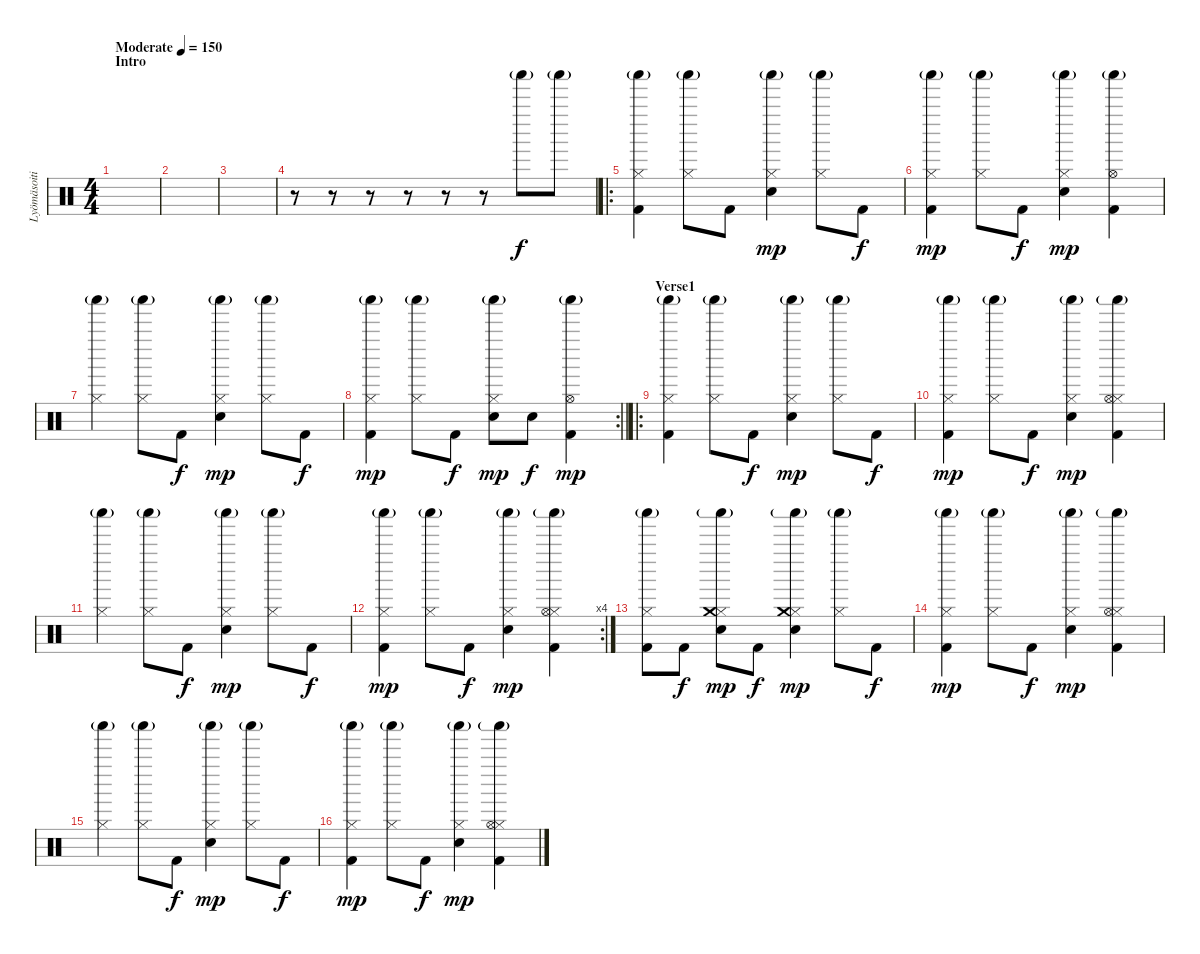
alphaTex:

\track ("Lyömäsoitin" "Lyömäsoiti") {instrument percussion}
\staff
\articulation defaults
\ts (4 4)
\section ("" "Intro")
\tempo (150 "Moderate")
\clef neutral
\ks c
|
|
|
r.8 r.8 r.8 r.8 r.8 r.8 "Shaker (hit)"{g}.8 "Shaker (hit)"{g}.8 |
\ro
("Hi-Hat (closed)" "Shaker (hit)"{g} "Kick (hit) 2").4 ("Hi-Hat (closed)" "Shaker (hit)"{g}).8 "Kick (hit) 2".8{dy f} ("Hi-Hat (closed)" "Snare (hit) 2" "Shaker (hit)"{g}).4{dy mp} ("Hi-Hat (closed)" "Shaker (hit)"{g}).8 "Kick (hit) 2".8{dy f} |
("Hi-Hat (closed)" "Shaker (hit)"{g} "Kick (hit) 2").4{dy mp} ("Hi-Hat (closed)" "Shaker (hit)"{g}).8 "Kick (hit) 2".8{dy f} ("Hi-Hat (closed)" "Snare (hit) 2" "Shaker (hit)"{g}).4{dy mp} ("Hi-Hat (open)" "Shaker (hit)"{g} "Kick (hit) 2").4 |
("Hi-Hat (closed)" "Shaker (hit)"{g}).4 ("Hi-Hat (closed)" "Shaker (hit)"{g}).8 "Kick (hit) 2".8{dy f} ("Hi-Hat (closed)" "Snare (hit) 2" "Shaker (hit)"{g}).4{dy mp} ("Hi-Hat (closed)" "Shaker (hit)"{g}).8 "Kick (hit) 2".8{dy f} |
\rc 2
\barLineRight lightlight
("Hi-Hat (closed)" "Shaker (hit)"{g} "Kick (hit) 2").4{dy mp} ("Hi-Hat (closed)" "Shaker (hit)"{g}).8 "Kick (hit) 2".8{dy f} ("Hi-Hat (closed)" "Snare (hit) 2" "Shaker (hit)"{g}).8{dy mp} "Snare (hit) 2".8{dy f} ("Hi-Hat (open)" "Shaker (hit)"{g} "Kick (hit) 2").4{dy mp} |
\ro
\section ("" "Verse1")
("Hi-Hat (closed)" "Shaker (hit)"{g} "Kick (hit) 2").4 ("Hi-Hat (closed)" "Shaker (hit)"{g}).8 "Kick (hit) 2".8{dy f} ("Hi-Hat (closed)" "Snare (hit) 2" "Shaker (hit)"{g}).4{dy mp} ("Hi-Hat (closed)" "Shaker (hit)"{g}).8 "Kick (hit) 2".8{dy f} |
("Hi-Hat (closed)" "Shaker (hit)"{g} "Kick (hit) 2").4{dy mp} ("Hi-Hat (closed)" "Shaker (hit)"{g}).8 "Kick (hit) 2".8{dy f} ("Hi-Hat (closed)" "Snare (hit) 2" "Shaker (hit)"{g}).4{dy mp} ("Hi-Hat (closed)" "Hi-Hat (open)" "Shaker (hit)"{g} "Kick (hit) 2").4 |
("Hi-Hat (closed)" "Shaker (hit)"{g}).4 ("Hi-Hat (closed)" "Shaker (hit)"{g}).8 "Kick (hit) 2".8{dy f} ("Hi-Hat (closed)" "Snare (hit) 2" "Shaker (hit)"{g}).4{dy mp} ("Hi-Hat (closed)" "Shaker (hit)"{g}).8 "Kick (hit) 2".8{dy f} |
\rc 4
("Hi-Hat (closed)" "Shaker (hit)"{g} "Kick (hit) 2").4{dy mp} ("Hi-Hat (closed)" "Shaker (hit)"{g}).8 "Kick (hit) 2".8{dy f} ("Hi-Hat (closed)" "Snare (hit) 2" "Shaker (hit)"{g}).4{dy mp} ("Hi-Hat (closed)" "Hi-Hat (open)" "Shaker (hit)"{g} "Kick (hit) 2").4 |
("Hi-Hat (closed)" "Shaker (hit)"{g} "Kick (hit) 2").8 "Kick (hit) 2".8{dy f} ("Hi-Hat (closed)" "Snare (hit) 2" "Shaker (hit)"{g} "Crash medium (hit)").8{dy mp} "Kick (hit) 2".8{dy f} ("Hi-Hat (closed)" "Crash medium (hit)" "Snare (hit) 2" "Shaker (hit)"{g}).4{dy mp} ("Hi-Hat (closed)" "Shaker (hit)"{g}).8 "Kick (hit) 2".8{dy f} |
("Hi-Hat (closed)" "Shaker (hit)"{g} "Kick (hit) 2").4{dy mp} ("Hi-Hat (closed)" "Shaker (hit)"{g}).8 "Kick (hit) 2".8{dy f} ("Hi-Hat (closed)" "Snare (hit) 2" "Shaker (hit)"{g}).4{dy mp} ("Hi-Hat (closed)" "Hi-Hat (open)" "Shaker (hit)"{g} "Kick (hit) 2").4 |
("Hi-Hat (closed)" "Shaker (hit)"{g}).4 ("Hi-Hat (closed)" "Shaker (hit)"{g}).8 "Kick (hit) 2".8{dy f} ("Hi-Hat (closed)" "Snare (hit) 2" "Shaker (hit)"{g}).4{dy mp} ("Hi-Hat (closed)" "Shaker (hit)"{g}).8 "Kick (hit) 2".8{dy f} |
("Hi-Hat (closed)" "Shaker (hit)"{g} "Kick (hit) 2").4{dy mp} ("Hi-Hat (closed)" "Shaker (hit)"{g}).8 "Kick (hit) 2".8{dy f} ("Hi-Hat (closed)" "Snare (hit) 2" "Shaker (hit)"{g}).4{dy mp} ("Hi-Hat (closed)" "Hi-Hat (open)" "Shaker (hit)"{g} "Kick (hit) 2").4
